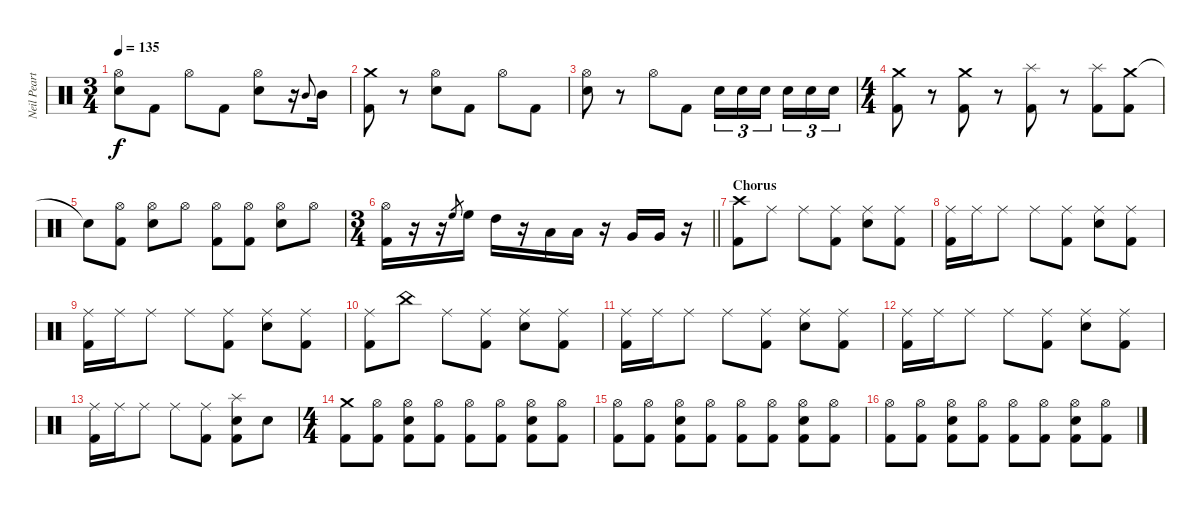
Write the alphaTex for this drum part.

\track ("Neil Peart" "Neil Peart") {instrument percussion}
\staff {score}
\articulation defaults
\ts (3 4)
\tempo 135
\clef neutral
\ks c
("Hi-Hat (open)" "Snare (hit) 2").8{dy f} "Kick (hit) 2".8 "Hi-Hat (open)".8 "Kick (hit) 2".8 ("Hi-Hat (open)" "Snare (hit) 2").8 r.16 "Mid Tom (hit)".8{gr onbeat} "Mid Tom (hit)".16 |
("Crash medium (hit)" "Kick (hit) 2").8 r.8 ("Hi-Hat (open)" "Snare (hit) 2").8 "Kick (hit) 2".8 "Hi-Hat (open)".8 "Kick (hit) 2".8 |
("Hi-Hat (open)" "Snare (hit) 2").8 r.8 "Hi-Hat (open)".8 "Kick (hit) 2".8 "Snare (hit) 2".16{tu (3 2)} "Snare (hit) 2".16{tu (3 2)} "Snare (hit) 2".16{tu (3 2) beam splitsecondary} "Snare (hit) 2".16{tu (3 2)} "Snare (hit) 2".16{tu (3 2)} "Snare (hit) 2".16{tu (3 2)} |
\ts (4 4)
("Crash medium (hit)" "Kick (hit) 2").8 r.8 ("Crash medium (hit)" "Kick (hit) 2").8 r.8 ("Splash (hit)" "Kick (hit) 2").8 r.8 ("Splash (hit)" "Kick (hit) 2").8 ("Crash medium (hit)" "Kick (hit) 2").8 |
"Snare (hit)"{t}.8 ("Hi-Hat (open)" "Kick (hit) 2").8 ("Hi-Hat (open)" "Snare (hit) 2").8 "Hi-Hat (open)".8 ("Hi-Hat (open)" "Kick (hit) 2").8 ("Hi-Hat (open)" "Kick (hit) 2").8 ("Hi-Hat (open)" "Snare (hit) 2").8 "Hi-Hat (open)".8 |
\ts (3 4)
\barLineRight lightlight
("Hi-Hat (open)" "Kick (hit) 2").16 r.16 r.16 "High Floor Tom (hit)".8{gr} "High Floor Tom (hit)".16 "High Tom (hit)".16 r.16 "Low Tom (hit)".16 "Low Tom (hit)".16 r.16 "Very Low Tom (hit)".16 "Very Low Tom (hit)".16 r.16 |
\section ("" "Chorus")
("Crash high (hit)" "Kick (hit) 2").8 "Ride (middle)".8 "Ride (middle)".8 ("Ride (middle)" "Kick (hit) 2").8 ("Ride (middle)" "Snare (hit) 2").8 ("Ride (middle)" "Kick (hit) 2").8 |
("Ride (middle)" "Kick (hit) 2").16 "Ride (middle)".16 "Ride (middle)".8 "Ride (middle)".8 ("Ride (middle)" "Kick (hit) 2").8 ("Ride (middle)" "Snare (hit) 2").8 ("Ride (middle)" "Kick (hit) 2").8 |
("Ride (middle)" "Kick (hit) 2").16 "Ride (middle)".16 "Ride (middle)".8 "Ride (middle)".8 ("Ride (middle)" "Kick (hit) 2").8 ("Ride (middle)" "Snare (hit) 2").8 ("Ride (middle)" "Kick (hit) 2").8 |
("Ride (middle)" "Kick (hit) 2").8 "China (hit)".8 "Ride (middle)".8 ("Ride (middle)" "Kick (hit) 2").8 ("Ride (middle)" "Snare (hit) 2").8 ("Ride (middle)" "Kick (hit) 2").8 |
("Ride (middle)" "Kick (hit) 2").16 "Ride (middle)".16 "Ride (middle)".8 "Ride (middle)".8 ("Ride (middle)" "Kick (hit) 2").8 ("Ride (middle)" "Snare (hit) 2").8 ("Ride (middle)" "Kick (hit) 2").8 |
("Ride (middle)" "Kick (hit) 2").16 "Ride (middle)".16 "Ride (middle)".8 "Ride (middle)".8 ("Ride (middle)" "Kick (hit) 2").8 ("Ride (middle)" "Snare (hit) 2").8 ("Ride (middle)" "Kick (hit) 2").8 |
("Ride (middle)" "Kick (hit) 2").16 "Ride (middle)".16 "Ride (middle)".8 "Ride (middle)".8 ("Ride (middle)" "Kick (hit) 2").8 ("Splash (hit)" "Snare (hit) 2" "Kick (hit) 2").8 "Snare (hit) 2".8 |
\ts (4 4)
("Crash medium (hit)" "Kick (hit) 2").8 ("Hi-Hat (open)" "Kick (hit) 2").8 ("Hi-Hat (open)" "Snare (hit) 2" "Kick (hit) 2").8 ("Hi-Hat (open)" "Kick (hit) 2").8 ("Hi-Hat (open)" "Kick (hit) 2").8 ("Hi-Hat (open)" "Kick (hit) 2").8 ("Hi-Hat (open)" "Snare (hit) 2" "Kick (hit) 2").8 ("Hi-Hat (open)" "Kick (hit) 2").8 |
("Hi-Hat (open)" "Kick (hit) 2").8 ("Hi-Hat (open)" "Kick (hit) 2").8 ("Hi-Hat (open)" "Snare (hit) 2" "Kick (hit) 2").8 ("Hi-Hat (open)" "Kick (hit) 2").8 ("Hi-Hat (open)" "Kick (hit) 2").8 ("Hi-Hat (open)" "Kick (hit) 2").8 ("Hi-Hat (open)" "Snare (hit) 2" "Kick (hit) 2").8 ("Hi-Hat (open)" "Kick (hit) 2").8 |
("Hi-Hat (open)" "Kick (hit) 2").8 ("Hi-Hat (open)" "Kick (hit) 2").8 ("Hi-Hat (open)" "Snare (hit) 2" "Kick (hit) 2").8 ("Hi-Hat (open)" "Kick (hit) 2").8 ("Hi-Hat (open)" "Kick (hit) 2").8 ("Hi-Hat (open)" "Kick (hit) 2").8 ("Hi-Hat (open)" "Snare (hit) 2" "Kick (hit) 2").8 ("Hi-Hat (open)" "Kick (hit) 2").8
